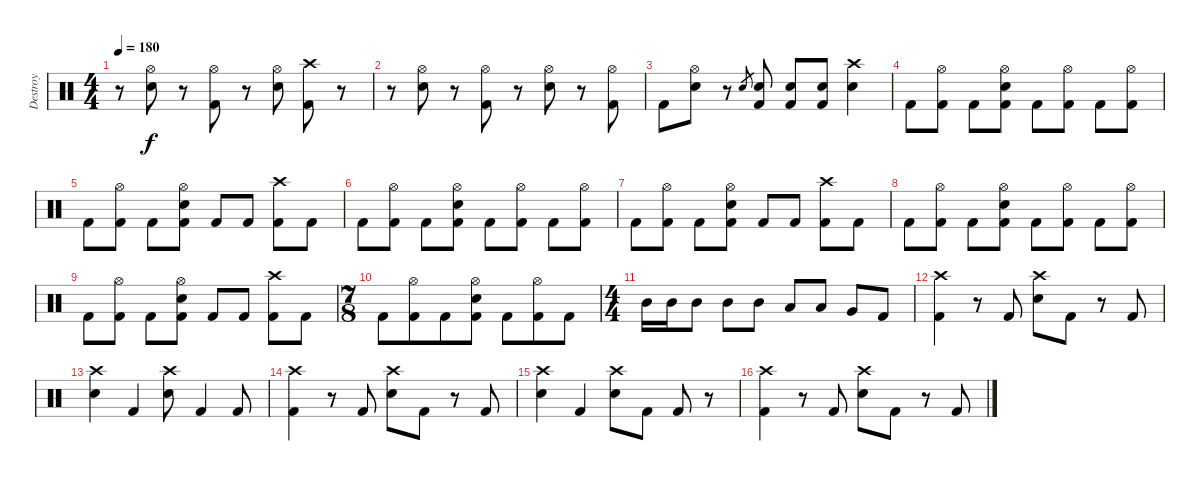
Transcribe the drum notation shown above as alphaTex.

\track ("Destroy" "Destroy") {instrument percussion}
\staff {score}
\articulation defaults
\ts (4 4)
\tempo 180
\clef neutral
\ks c
r.8{dy f} ("Hi-Hat (open)" "Electric Snare (hit)").8 r.8 ("Hi-Hat (open)" "Kick (hit) 2").8 r.8 ("Hi-Hat (open)" "Electric Snare (hit)").8 ("Crash high (hit)" "Kick (hit) 2").8 r.8 |
r.8 ("Hi-Hat (open)" "Electric Snare (hit)").8 r.8 ("Hi-Hat (open)" "Kick (hit) 2").8 r.8 ("Hi-Hat (open)" "Electric Snare (hit)").8 r.8 ("Hi-Hat (open)" "Kick (hit) 2").8 |
"Kick (hit) 2".8 ("Hi-Hat (open)" "Electric Snare (hit)").8 r.8 "Electric Snare (hit)".8{gr} ("Electric Snare (hit)" "Kick (hit) 2").8 ("Electric Snare (hit)" "Kick (hit) 2").8 ("Electric Snare (hit)" "Kick (hit) 2").8 ("Crash high (hit)" "Electric Snare (hit)").4 |
"Kick (hit) 2".8 ("Hi-Hat (open)" "Kick (hit) 2").8 "Kick (hit) 2".8 ("Hi-Hat (open)" "Electric Snare (hit)" "Kick (hit) 2").8 "Kick (hit) 2".8 ("Hi-Hat (open)" "Kick (hit) 2").8 "Kick (hit) 2".8 ("Hi-Hat (open)" "Kick (hit) 2").8 |
"Kick (hit) 2".8 ("Hi-Hat (open)" "Kick (hit) 2").8 "Kick (hit) 2".8 ("Hi-Hat (open)" "Electric Snare (hit)" "Kick (hit) 2").8 "Kick (hit) 2".8 "Kick (hit) 2".8 ("Crash high (hit)" "Kick (hit) 2").8 "Kick (hit) 2".8 |
"Kick (hit) 2".8 ("Hi-Hat (open)" "Kick (hit) 2").8 "Kick (hit) 2".8 ("Hi-Hat (open)" "Electric Snare (hit)" "Kick (hit) 2").8 "Kick (hit) 2".8 ("Hi-Hat (open)" "Kick (hit) 2").8 "Kick (hit) 2".8 ("Hi-Hat (open)" "Kick (hit) 2").8 |
"Kick (hit) 2".8 ("Hi-Hat (open)" "Kick (hit) 2").8 "Kick (hit) 2".8 ("Hi-Hat (open)" "Electric Snare (hit)" "Kick (hit) 2").8 "Kick (hit) 2".8 "Kick (hit) 2".8 ("Crash high (hit)" "Kick (hit) 2").8 "Kick (hit) 2".8 |
"Kick (hit) 2".8 ("Hi-Hat (open)" "Kick (hit) 2").8 "Kick (hit) 2".8 ("Hi-Hat (open)" "Electric Snare (hit)" "Kick (hit) 2").8 "Kick (hit) 2".8 ("Hi-Hat (open)" "Kick (hit) 2").8 "Kick (hit) 2".8 ("Hi-Hat (open)" "Kick (hit) 2").8 |
"Kick (hit) 2".8 ("Hi-Hat (open)" "Kick (hit) 2").8 "Kick (hit) 2".8 ("Hi-Hat (open)" "Electric Snare (hit)" "Kick (hit) 2").8 "Kick (hit) 2".8 "Kick (hit) 2".8 ("Crash high (hit)" "Kick (hit) 2").8 "Kick (hit) 2".8 |
\ts (7 8)
"Kick (hit) 2".8 ("Hi-Hat (open)" "Kick (hit) 2").8 "Kick (hit) 2".8 ("Hi-Hat (open)" "Electric Snare (hit)" "Kick (hit) 2").8 "Kick (hit) 2".8 ("Hi-Hat (open)" "Kick (hit) 2").8 "Kick (hit) 2".8 |
\ts (4 4)
"Mid Tom (hit)".16 "Mid Tom (hit)".16 "Mid Tom (hit)".8 "Mid Tom (hit)".8 "Mid Tom (hit)".8 "Low Tom (hit)".8 "Low Tom (hit)".8 "Very Low Tom (hit)".8 "Kick (hit) 2".8 |
("Crash high (hit)" "Kick (hit) 2").4 r.8 "Kick (hit) 2".8 ("Crash high (hit)" "Electric Snare (hit)").8 "Kick (hit) 2".8 r.8 "Kick (hit) 2".8 |
("Crash high (hit)" "Electric Snare (hit)").4 "Kick (hit) 2".4 ("Crash high (hit)" "Electric Snare (hit)").8 "Kick (hit) 2".4 "Kick (hit) 2".8 |
("Crash high (hit)" "Kick (hit) 2").4 r.8 "Kick (hit) 2".8 ("Crash high (hit)" "Electric Snare (hit)").8 "Kick (hit) 2".8 r.8 "Kick (hit) 2".8 |
("Crash high (hit)" "Electric Snare (hit)").4 "Kick (hit) 2".4 ("Crash high (hit)" "Electric Snare (hit)").8 "Kick (hit) 2".8 "Kick (hit) 2".8 r.8 |
("Crash high (hit)" "Kick (hit) 2").4 r.8 "Kick (hit) 2".8 ("Crash high (hit)" "Electric Snare (hit)").8 "Kick (hit) 2".8 r.8 "Kick (hit) 2".8
